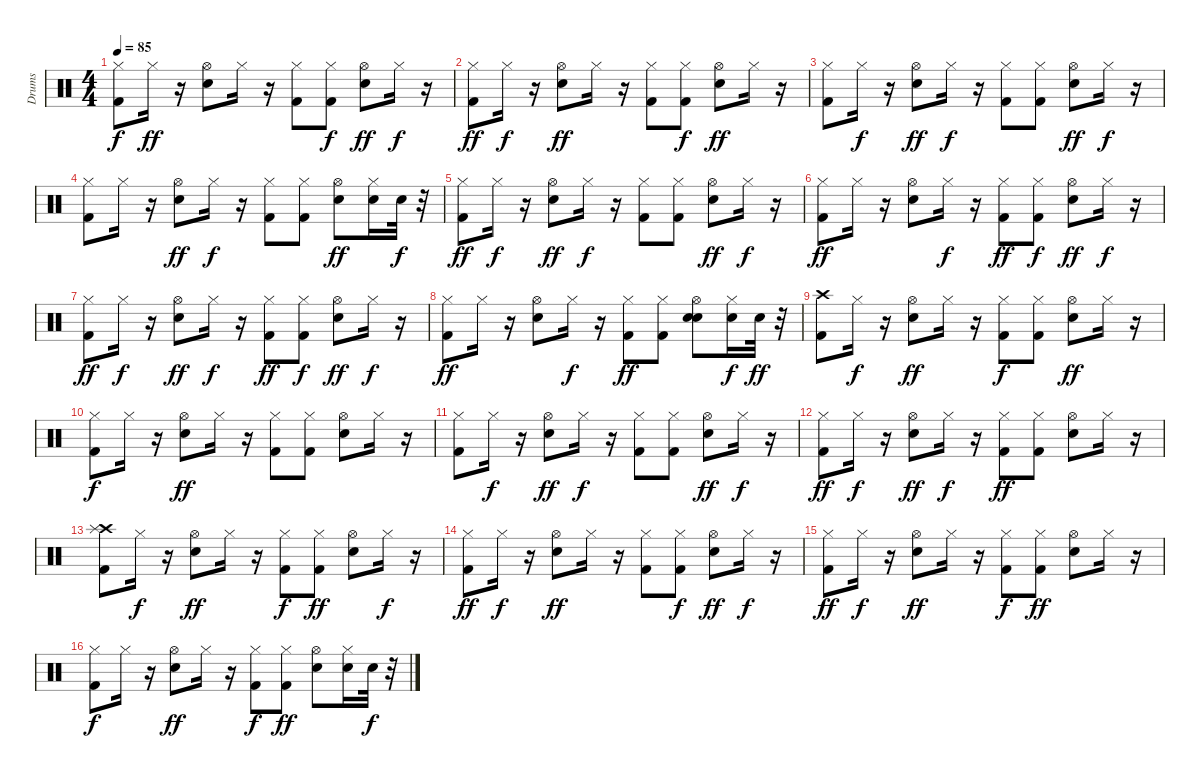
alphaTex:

\track ("Drums" "Drums") {instrument percussion}
\staff {score}
\articulation defaults
\ts (4 4)
\tempo 85
\clef neutral
\ks c
("Kick (hit) 2" "Hi-Hat (closed)").8{dy f} "Hi-Hat (closed)".16{dy ff} r.16 ("Electric Snare (hit)" "Hi-Hat (open)").8 "Hi-Hat (closed)".16 r.16 ("Kick (hit) 2" "Hi-Hat (closed)").8 ("Kick (hit) 2" "Hi-Hat (closed)").8{dy f} ("Electric Snare (hit)" "Hi-Hat (open)").8{dy ff} "Hi-Hat (closed)".16{dy f} r.16 |
("Kick (hit) 2" "Hi-Hat (closed)").8{dy ff} "Hi-Hat (closed)".16{dy f} r.16 ("Electric Snare (hit)" "Hi-Hat (open)").8{dy ff} "Hi-Hat (closed)".16 r.16 ("Kick (hit) 2" "Hi-Hat (closed)").8 ("Kick (hit) 2" "Hi-Hat (closed)").8{dy f} ("Electric Snare (hit)" "Hi-Hat (open)").8{dy ff} "Hi-Hat (closed)".16 r.16 |
("Kick (hit) 2" "Hi-Hat (closed)").8 "Hi-Hat (closed)".16{dy f} r.16 ("Electric Snare (hit)" "Hi-Hat (open)").8{dy ff} "Hi-Hat (closed)".16{dy f} r.16 ("Kick (hit) 2" "Hi-Hat (closed)").8 ("Kick (hit) 2" "Hi-Hat (closed)").8 ("Electric Snare (hit)" "Hi-Hat (open)").8{dy ff} "Hi-Hat (closed)".16{dy f} r.16 |
("Kick (hit) 2" "Hi-Hat (closed)").8 "Hi-Hat (closed)".16 r.16 ("Electric Snare (hit)" "Hi-Hat (open)").8{dy ff} "Hi-Hat (closed)".16{dy f} r.16 ("Kick (hit) 2" "Hi-Hat (closed)").8 ("Kick (hit) 2" "Hi-Hat (closed)").8 ("Electric Snare (hit)" "Hi-Hat (open)").8{dy ff} ("Hi-Hat (closed)" "Electric Snare (hit)").16 "Electric Snare (hit)".32{dy f} r.32 |
("Kick (hit) 2" "Hi-Hat (closed)").8{dy ff} "Hi-Hat (closed)".16{dy f} r.16 ("Electric Snare (hit)" "Hi-Hat (open)").8{dy ff} "Hi-Hat (closed)".16{dy f} r.16 ("Kick (hit) 2" "Hi-Hat (closed)").8 ("Kick (hit) 2" "Hi-Hat (closed)").8 ("Electric Snare (hit)" "Hi-Hat (open)").8{dy ff} "Hi-Hat (closed)".16{dy f} r.16 |
("Kick (hit) 2" "Hi-Hat (closed)").8{dy ff} "Hi-Hat (closed)".16 r.16 ("Electric Snare (hit)" "Hi-Hat (open)").8 "Hi-Hat (closed)".16{dy f} r.16 ("Kick (hit) 2" "Hi-Hat (closed)").8{dy ff} ("Kick (hit) 2" "Hi-Hat (closed)").8{dy f} ("Electric Snare (hit)" "Hi-Hat (open)").8{dy ff} "Hi-Hat (closed)".16{dy f} r.16 |
("Kick (hit) 2" "Hi-Hat (closed)").8{dy ff} "Hi-Hat (closed)".16{dy f} r.16 ("Electric Snare (hit)" "Hi-Hat (open)").8{dy ff} "Hi-Hat (closed)".16{dy f} r.16 ("Kick (hit) 2" "Hi-Hat (closed)").8{dy ff} ("Kick (hit) 2" "Hi-Hat (closed)").8{dy f} ("Electric Snare (hit)" "Hi-Hat (open)").8{dy ff} "Hi-Hat (closed)".16{dy f} r.16 |
("Kick (hit) 2" "Hi-Hat (closed)").8{dy ff} "Hi-Hat (closed)".16 r.16 ("Electric Snare (hit)" "Hi-Hat (open)").8 "Hi-Hat (closed)".16{dy f} r.16 ("Kick (hit) 2" "Hi-Hat (closed)").8{dy ff} ("Kick (hit) 2" "Hi-Hat (closed)").8 ("Electric Snare (hit)" "Hi-Hat (open)" "Electric Snare (hit)").8 ("Hi-Hat (closed)" "Electric Snare (hit)").16{dy f} "Electric Snare (hit)".32{dy ff} r.32 |
("Kick (hit) 2" "Crash high (hit)").8 "Hi-Hat (closed)".16{dy f} r.16 ("Electric Snare (hit)" "Hi-Hat (open)").8{dy ff} "Hi-Hat (closed)".16 r.16 ("Kick (hit) 2" "Hi-Hat (closed)").8{dy f} ("Kick (hit) 2" "Hi-Hat (closed)").8 ("Electric Snare (hit)" "Hi-Hat (open)").8{dy ff} "Hi-Hat (closed)".16 r.16 |
("Kick (hit) 2" "Hi-Hat (closed)").8{dy f} "Hi-Hat (closed)".16 r.16 ("Electric Snare (hit)" "Hi-Hat (open)").8{dy ff} "Hi-Hat (closed)".16 r.16 ("Kick (hit) 2" "Hi-Hat (closed)").8 ("Kick (hit) 2" "Hi-Hat (closed)").8 ("Electric Snare (hit)" "Hi-Hat (open)").8 "Hi-Hat (closed)".16 r.16 |
("Kick (hit) 2" "Hi-Hat (closed)").8 "Hi-Hat (closed)".16{dy f} r.16 ("Electric Snare (hit)" "Hi-Hat (open)").8{dy ff} "Hi-Hat (closed)".16{dy f} r.16 ("Kick (hit) 2" "Hi-Hat (closed)").8 ("Kick (hit) 2" "Hi-Hat (closed)").8 ("Electric Snare (hit)" "Hi-Hat (open)").8{dy ff} "Hi-Hat (closed)".16{dy f} r.16 |
("Kick (hit) 2" "Hi-Hat (closed)").8{dy ff} "Hi-Hat (closed)".16{dy f} r.16 ("Electric Snare (hit)" "Hi-Hat (open)").8{dy ff} "Hi-Hat (closed)".16{dy f} r.16 ("Kick (hit) 2" "Hi-Hat (closed)").8{dy ff} ("Kick (hit) 2" "Hi-Hat (closed)").8 ("Electric Snare (hit)" "Hi-Hat (open)").8 "Hi-Hat (closed)".16 r.16 |
("Kick (hit) 2" "Crash high (hit)" "Splash (hit)").8 "Hi-Hat (closed)".16{dy f} r.16 ("Electric Snare (hit)" "Hi-Hat (open)").8{dy ff} "Hi-Hat (closed)".16 r.16 ("Kick (hit) 2" "Hi-Hat (closed)").8{dy f} ("Kick (hit) 2" "Hi-Hat (closed)").8{dy ff} ("Electric Snare (hit)" "Hi-Hat (open)").8 "Hi-Hat (closed)".16{dy f} r.16 |
("Kick (hit) 2" "Hi-Hat (closed)").8{dy ff} "Hi-Hat (closed)".16{dy f} r.16 ("Electric Snare (hit)" "Hi-Hat (open)").8{dy ff} "Hi-Hat (closed)".16 r.16 ("Kick (hit) 2" "Hi-Hat (closed)").8 ("Kick (hit) 2" "Hi-Hat (closed)").8{dy f} ("Electric Snare (hit)" "Hi-Hat (open)").8{dy ff} "Hi-Hat (closed)".16{dy f} r.16 |
("Kick (hit) 2" "Hi-Hat (closed)").8{dy ff} "Hi-Hat (closed)".16{dy f} r.16 ("Electric Snare (hit)" "Hi-Hat (open)").8{dy ff} "Hi-Hat (closed)".16 r.16 ("Kick (hit) 2" "Hi-Hat (closed)").8{dy f} ("Kick (hit) 2" "Hi-Hat (closed)").8{dy ff} ("Electric Snare (hit)" "Hi-Hat (open)").8 "Hi-Hat (closed)".16 r.16 |
("Kick (hit) 2" "Hi-Hat (closed)").8{dy f} "Hi-Hat (closed)".16 r.16 ("Electric Snare (hit)" "Hi-Hat (open)").8{dy ff} "Hi-Hat (closed)".16 r.16 ("Kick (hit) 2" "Hi-Hat (closed)").8{dy f} ("Kick (hit) 2" "Hi-Hat (closed)").8{dy ff} ("Electric Snare (hit)" "Hi-Hat (open)").8 ("Hi-Hat (closed)" "Electric Snare (hit)").16 "Electric Snare (hit)".32{dy f} r.32
